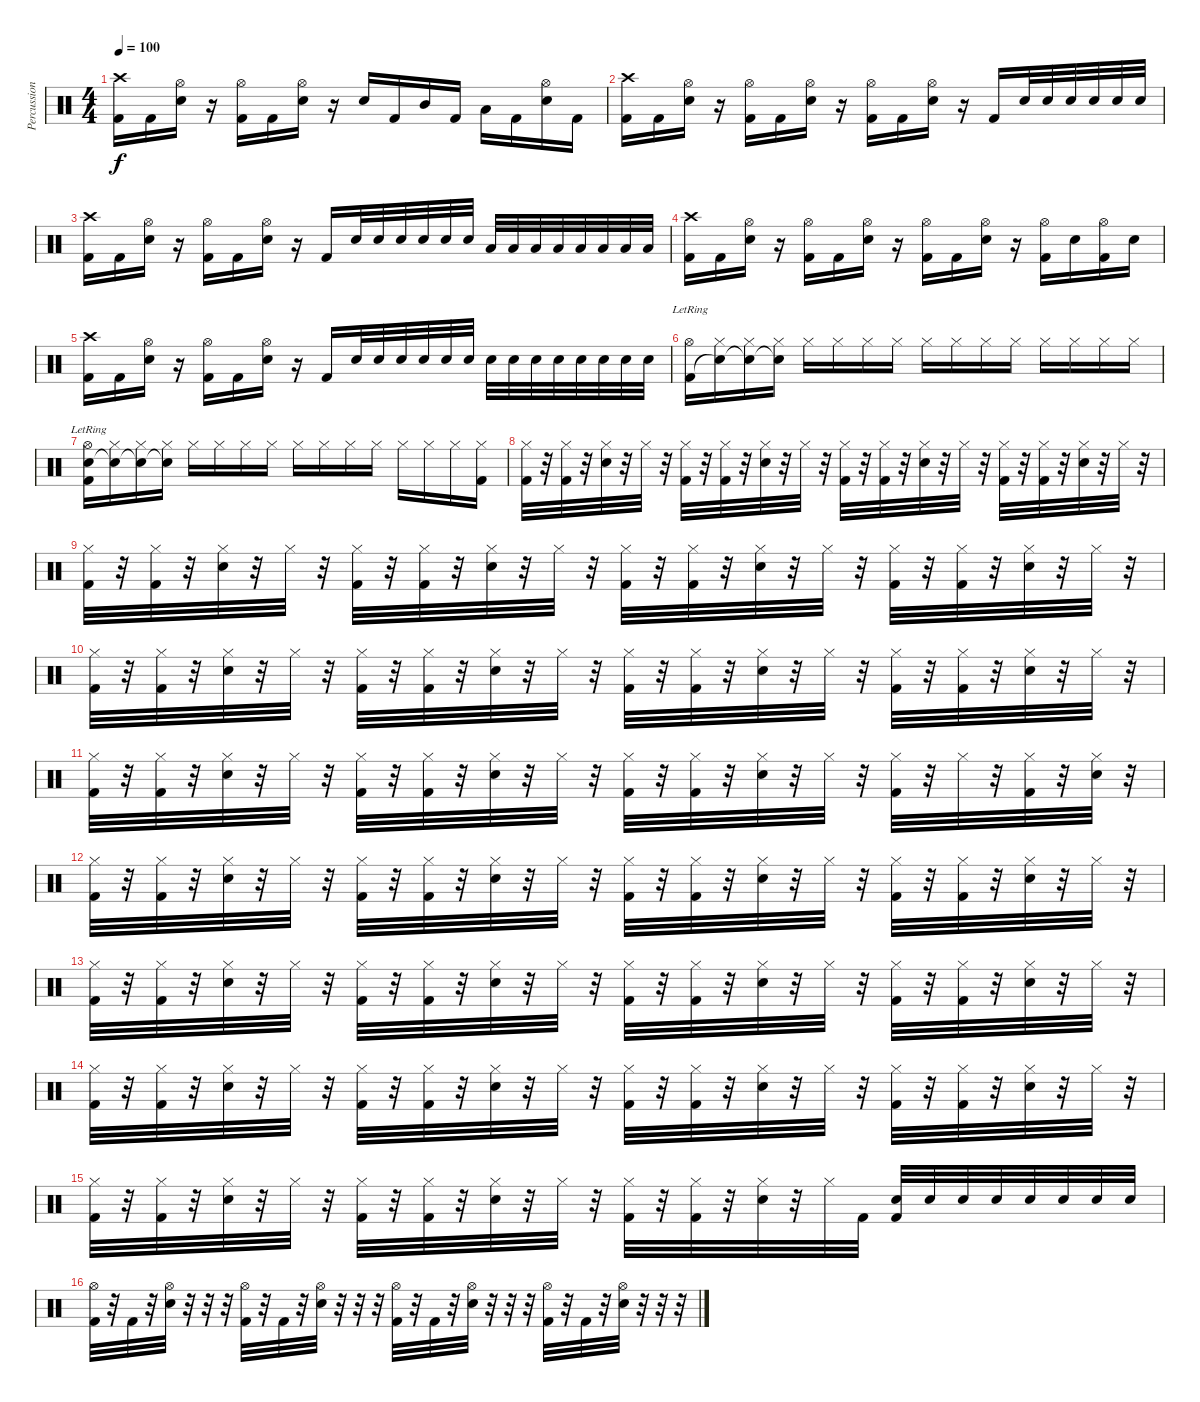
\track ("Percussion" "Percussion") {instrument percussion}
\staff {score}
\articulation defaults
\ts (4 4)
\tempo 100
\clef neutral
\ks c
("Crash high (hit)" "Kick (hit) 2").16{dy f} "Kick (hit) 2".16 ("Hi-Hat (open)" "Snare (hit) 2").16 r.16 ("Hi-Hat (open)" "Kick (hit) 2").16 "Kick (hit) 2".16 ("Hi-Hat (open)" "Snare (hit) 2").16 r.16 "Snare (hit) 2".16 "Kick (hit) 2".16 "Mid Tom (hit)".16 "Kick (hit) 2".16 "Low Floor Tom (hit)".16 "Kick (hit) 2".16 ("Hi-Hat (open)" "Snare (hit) 2").16 "Kick (hit) 2".16 |
("Crash high (hit)" "Kick (hit) 2").16 "Kick (hit) 2".16 ("Hi-Hat (open)" "Snare (hit) 2").16 r.16 ("Hi-Hat (open)" "Kick (hit) 2").16 "Kick (hit) 2".16 ("Hi-Hat (open)" "Snare (hit) 2").16 r.16 ("Hi-Hat (open)" "Kick (hit) 2").16 "Kick (hit) 2".16 ("Hi-Hat (open)" "Snare (hit) 2").16 r.16 "Kick (hit) 2".16 "Snare (hit) 2".32 "Snare (hit) 2".32 "Snare (hit) 2".32 "Snare (hit) 2".32 "Snare (hit) 2".32 "Snare (hit) 2".32 |
("Crash high (hit)" "Kick (hit) 2").16 "Kick (hit) 2".16 ("Hi-Hat (open)" "Snare (hit) 2").16 r.16 ("Hi-Hat (open)" "Kick (hit) 2").16 "Kick (hit) 2".16 ("Hi-Hat (open)" "Snare (hit) 2").16 r.16 "Kick (hit) 2".16 "Snare (hit) 2".32 "Snare (hit) 2".32 "Snare (hit) 2".32 "Snare (hit) 2".32 "Snare (hit) 2".32 "Snare (hit) 2".32 "Low Tom (hit)".32 "Low Tom (hit)".32 "Low Tom (hit)".32 "Low Tom (hit)".32 "Low Floor Tom (hit)".32 "Low Floor Tom (hit)".32 "Low Floor Tom (hit)".32 "Low Floor Tom (hit)".32 |
("Crash high (hit)" "Kick (hit) 2").16 "Kick (hit) 2".16 ("Hi-Hat (open)" "Snare (hit) 2").16 r.16 ("Hi-Hat (open)" "Kick (hit) 2").16 "Kick (hit) 2".16 ("Hi-Hat (open)" "Snare (hit) 2").16 r.16 ("Hi-Hat (open)" "Kick (hit) 2").16 "Kick (hit) 2".16 ("Hi-Hat (open)" "Snare (hit) 2").16 r.16 ("Hi-Hat (open)" "Kick (hit) 2").16 "Snare (hit) 2".16 ("Hi-Hat (open)" "Kick (hit) 2").16 "Snare (hit) 2".16 |
("Crash high (hit)" "Kick (hit) 2").16 "Kick (hit) 2".16 ("Hi-Hat (open)" "Snare (hit) 2").16 r.16 ("Hi-Hat (open)" "Kick (hit) 2").16 "Kick (hit) 2".16 ("Hi-Hat (open)" "Snare (hit) 2").16 r.16 "Kick (hit) 2".16 "Snare (hit) 2".32 "Snare (hit) 2".32 "Snare (hit) 2".32 "Snare (hit) 2".32 "Snare (hit) 2".32 "Snare (hit) 2".32 "Snare (hit) 2".32 "Snare (hit) 2".32 "Snare (hit) 2".32 "Snare (hit) 2".32 "Snare (hit) 2".32 "Snare (hit) 2".32 "Snare (hit) 2".32 "Snare (hit) 2".32 |
("Hi-Hat (open)"{lr} "Kick (hit) 2").16 ("Hi-Hat (closed)" "Snare (hit)"{t}).16{volume 9} ("Hi-Hat (closed)" "Snare (hit)"{t}).16{volume 13} ("Hi-Hat (closed)" "Snare (hit)"{t}).16{volume 9} "Hi-Hat (closed)".16{volume 13} "Hi-Hat (closed)".16{volume 9} "Hi-Hat (closed)".16{volume 13} "Hi-Hat (closed)".16{volume 9} "Hi-Hat (closed)".16{volume 13} "Hi-Hat (closed)".16{volume 9} "Hi-Hat (closed)".16{volume 13} "Hi-Hat (closed)".16{volume 9} "Hi-Hat (closed)".16{volume 13} "Hi-Hat (closed)".16{volume 9} "Hi-Hat (closed)".16{volume 13} "Hi-Hat (closed)".16 |
("Hi-Hat (open)"{lr} "Snare (hit) 2" "Kick (hit) 2").16 ("Hi-Hat (closed)" "Snare (hit)"{t}).16{volume 9} ("Hi-Hat (closed)" "Snare (hit)"{t}).16{volume 13} ("Hi-Hat (closed)" "Snare (hit)"{t}).16{volume 9} "Hi-Hat (closed)".16{volume 13} "Hi-Hat (closed)".16{volume 9} "Hi-Hat (closed)".16{volume 13} "Hi-Hat (closed)".16{volume 9} "Hi-Hat (closed)".16{volume 13} "Hi-Hat (closed)".16{volume 9} "Hi-Hat (closed)".16{volume 13} "Hi-Hat (closed)".16{volume 9} "Hi-Hat (closed)".16{volume 13} "Hi-Hat (closed)".16{volume 9} "Hi-Hat (closed)".16{volume 13} ("Hi-Hat (closed)" "Kick (hit) 2").16 |
("Hi-Hat (closed)" "Kick (hit) 2").32 r.32 ("Hi-Hat (closed)" "Kick (hit) 2").32 r.32 ("Hi-Hat (closed)" "Snare (hit) 2").32 r.32 "Hi-Hat (closed)".32 r.32 ("Hi-Hat (closed)" "Kick (hit) 2").32 r.32 ("Hi-Hat (closed)" "Kick (hit) 2").32 r.32 ("Hi-Hat (closed)" "Snare (hit) 2").32 r.32 "Hi-Hat (closed)".32 r.32 ("Hi-Hat (closed)" "Kick (hit) 2").32 r.32 ("Hi-Hat (closed)" "Kick (hit) 2").32 r.32 ("Hi-Hat (closed)" "Snare (hit) 2").32 r.32 "Hi-Hat (closed)".32 r.32 ("Hi-Hat (closed)" "Kick (hit) 2").32 r.32 ("Hi-Hat (closed)" "Kick (hit) 2").32 r.32 ("Hi-Hat (closed)" "Snare (hit) 2").32 r.32 "Hi-Hat (closed)".32 r.32 |
("Hi-Hat (closed)" "Kick (hit) 2").32 r.32 ("Hi-Hat (closed)" "Kick (hit) 2").32 r.32 ("Hi-Hat (closed)" "Snare (hit) 2").32 r.32 "Hi-Hat (closed)".32 r.32 ("Hi-Hat (closed)" "Kick (hit) 2").32 r.32 ("Hi-Hat (closed)" "Kick (hit) 2").32 r.32 ("Hi-Hat (closed)" "Snare (hit) 2").32 r.32 "Hi-Hat (closed)".32 r.32 ("Hi-Hat (closed)" "Kick (hit) 2").32 r.32 ("Hi-Hat (closed)" "Kick (hit) 2").32 r.32 ("Hi-Hat (closed)" "Snare (hit) 2").32 r.32 "Hi-Hat (closed)".32 r.32 ("Hi-Hat (closed)" "Kick (hit) 2").32 r.32 ("Hi-Hat (closed)" "Kick (hit) 2").32 r.32 ("Hi-Hat (closed)" "Snare (hit) 2").32 r.32 "Hi-Hat (closed)".32 r.32 |
("Hi-Hat (closed)" "Kick (hit) 2").32 r.32 ("Hi-Hat (closed)" "Kick (hit) 2").32 r.32 ("Hi-Hat (closed)" "Snare (hit) 2").32 r.32 "Hi-Hat (closed)".32 r.32 ("Hi-Hat (closed)" "Kick (hit) 2").32 r.32 ("Hi-Hat (closed)" "Kick (hit) 2").32 r.32 ("Hi-Hat (closed)" "Snare (hit) 2").32 r.32 "Hi-Hat (closed)".32 r.32 ("Hi-Hat (closed)" "Kick (hit) 2").32 r.32 ("Hi-Hat (closed)" "Kick (hit) 2").32 r.32 ("Hi-Hat (closed)" "Snare (hit) 2").32 r.32 "Hi-Hat (closed)".32 r.32 ("Hi-Hat (closed)" "Kick (hit) 2").32 r.32 ("Hi-Hat (closed)" "Kick (hit) 2").32 r.32 ("Hi-Hat (closed)" "Snare (hit) 2").32 r.32 "Hi-Hat (closed)".32 r.32 |
("Hi-Hat (closed)" "Kick (hit) 2").32 r.32 ("Hi-Hat (closed)" "Kick (hit) 2").32 r.32 ("Hi-Hat (closed)" "Snare (hit) 2").32 r.32 "Hi-Hat (closed)".32 r.32 ("Hi-Hat (closed)" "Kick (hit) 2").32 r.32 ("Hi-Hat (closed)" "Kick (hit) 2").32 r.32 ("Hi-Hat (closed)" "Snare (hit) 2").32 r.32 "Hi-Hat (closed)".32 r.32 ("Hi-Hat (closed)" "Kick (hit) 2").32 r.32 ("Hi-Hat (closed)" "Kick (hit) 2").32 r.32 ("Hi-Hat (closed)" "Snare (hit) 2").32 r.32 "Hi-Hat (closed)".32 r.32 ("Hi-Hat (closed)" "Kick (hit) 2").32 r.32 "Hi-Hat (closed)".32 r.32 ("Hi-Hat (closed)" "Kick (hit) 2").32 r.32 ("Hi-Hat (closed)" "Snare (hit) 2").32 r.32 |
("Hi-Hat (closed)" "Kick (hit) 2").32 r.32 ("Hi-Hat (closed)" "Kick (hit) 2").32 r.32 ("Hi-Hat (closed)" "Snare (hit) 2").32 r.32 "Hi-Hat (closed)".32 r.32 ("Hi-Hat (closed)" "Kick (hit) 2").32 r.32 ("Hi-Hat (closed)" "Kick (hit) 2").32 r.32 ("Hi-Hat (closed)" "Snare (hit) 2").32 r.32 "Hi-Hat (closed)".32 r.32 ("Hi-Hat (closed)" "Kick (hit) 2").32 r.32 ("Hi-Hat (closed)" "Kick (hit) 2").32 r.32 ("Hi-Hat (closed)" "Snare (hit) 2").32 r.32 "Hi-Hat (closed)".32 r.32 ("Hi-Hat (closed)" "Kick (hit) 2").32 r.32 ("Hi-Hat (closed)" "Kick (hit) 2").32 r.32 ("Hi-Hat (closed)" "Snare (hit) 2").32 r.32 "Hi-Hat (closed)".32 r.32 |
("Hi-Hat (closed)" "Kick (hit) 2").32 r.32 ("Hi-Hat (closed)" "Kick (hit) 2").32 r.32 ("Hi-Hat (closed)" "Snare (hit) 2").32 r.32 "Hi-Hat (closed)".32 r.32 ("Hi-Hat (closed)" "Kick (hit) 2").32 r.32 ("Hi-Hat (closed)" "Kick (hit) 2").32 r.32 ("Hi-Hat (closed)" "Snare (hit) 2").32 r.32 "Hi-Hat (closed)".32 r.32 ("Hi-Hat (closed)" "Kick (hit) 2").32 r.32 ("Hi-Hat (closed)" "Kick (hit) 2").32 r.32 ("Hi-Hat (closed)" "Snare (hit) 2").32 r.32 "Hi-Hat (closed)".32 r.32 ("Hi-Hat (closed)" "Kick (hit) 2").32 r.32 ("Hi-Hat (closed)" "Kick (hit) 2").32 r.32 ("Hi-Hat (closed)" "Snare (hit) 2").32 r.32 "Hi-Hat (closed)".32 r.32 |
("Hi-Hat (closed)" "Kick (hit) 2").32 r.32 ("Hi-Hat (closed)" "Kick (hit) 2").32 r.32 ("Hi-Hat (closed)" "Snare (hit) 2").32 r.32 "Hi-Hat (closed)".32 r.32 ("Hi-Hat (closed)" "Kick (hit) 2").32 r.32 ("Hi-Hat (closed)" "Kick (hit) 2").32 r.32 ("Hi-Hat (closed)" "Snare (hit) 2").32 r.32 "Hi-Hat (closed)".32 r.32 ("Hi-Hat (closed)" "Kick (hit) 2").32 r.32 ("Hi-Hat (closed)" "Kick (hit) 2").32 r.32 ("Hi-Hat (closed)" "Snare (hit) 2").32 r.32 "Hi-Hat (closed)".32 r.32 ("Hi-Hat (closed)" "Kick (hit) 2").32 r.32 ("Hi-Hat (closed)" "Kick (hit) 2").32 r.32 ("Hi-Hat (closed)" "Snare (hit) 2").32 r.32 "Hi-Hat (closed)".32 r.32 |
("Hi-Hat (closed)" "Kick (hit) 2").32 r.32 ("Hi-Hat (closed)" "Kick (hit) 2").32 r.32 ("Hi-Hat (closed)" "Snare (hit) 2").32 r.32 "Hi-Hat (closed)".32 r.32 ("Hi-Hat (closed)" "Kick (hit) 2").32 r.32 ("Hi-Hat (closed)" "Kick (hit) 2").32 r.32 ("Hi-Hat (closed)" "Snare (hit) 2").32 r.32 "Hi-Hat (closed)".32 r.32 ("Hi-Hat (closed)" "Kick (hit) 2").32 r.32 ("Hi-Hat (closed)" "Kick (hit) 2").32 r.32 ("Hi-Hat (closed)" "Snare (hit) 2").32 r.32 "Hi-Hat (closed)".32 "Kick (hit) 2".32 ("Snare (hit) 2" "Kick (hit) 2").32 "Snare (hit) 2".32 "Snare (hit) 2".32 "Snare (hit) 2".32 "Snare (hit) 2".32 "Snare (hit) 2".32 "Snare (hit) 2".32 "Snare (hit) 2".32 |
("Hi-Hat (open)" "Kick (hit) 2").32 r.32 "Kick (hit) 2".32 r.32 ("Hi-Hat (open)" "Snare (hit) 2").32 r.32 r.32 r.32 ("Hi-Hat (open)" "Kick (hit) 2").32 r.32 "Kick (hit) 2".32 r.32 ("Hi-Hat (open)" "Snare (hit) 2").32 r.32 r.32 r.32 ("Hi-Hat (open)" "Kick (hit) 2").32 r.32 "Kick (hit) 2".32 r.32 ("Hi-Hat (open)" "Snare (hit) 2").32 r.32 r.32 r.32 ("Hi-Hat (open)" "Kick (hit) 2").32 r.32 "Kick (hit) 2".32 r.32 ("Hi-Hat (open)" "Snare (hit) 2").32 r.32 r.32 r.32
